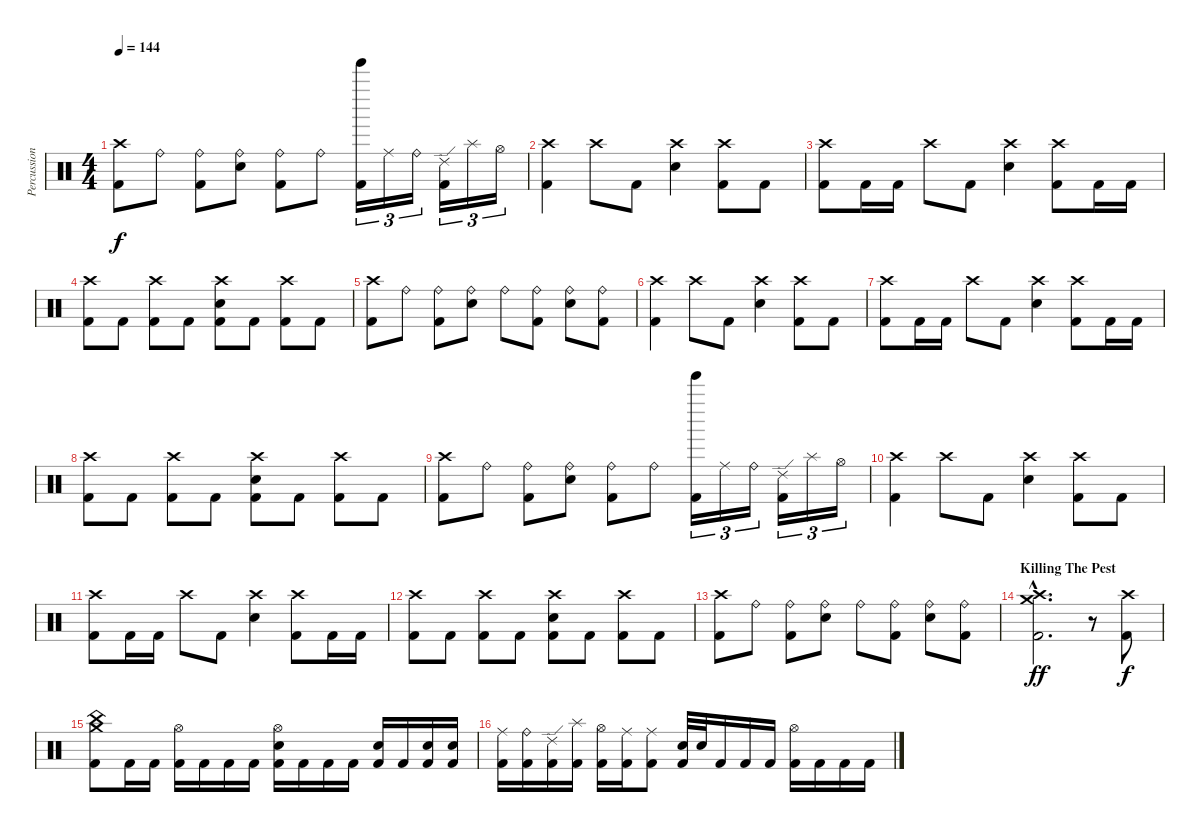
\track ("Percussion" "Percussion") {instrument percussion}
\staff {score}
\articulation defaults
\ts (4 4)
\tempo 144
\clef neutral
\ks c
("Crash high (hit)" "Kick (hit) 2").8{dy f} "Ride (bell)".8 ("Ride (bell)" "Kick (hit) 2").8 ("Ride (bell)" "Electric Snare (hit)").8 ("Ride (bell)" "Kick (hit) 2").8 "Ride (bell)".8 ("Tinkle Bell (hit)" "Kick (hit) 2").16{tu (3 2)} "Ride (middle)".16{tu (3 2)} "Ride (bell)".16{tu (3 2)} ("Ride (edge) 2" "Kick (hit) 2").16{tu (3 2)} "Splash (hit)".16{tu (3 2)} "Hi-Hat (open)".16{tu (3 2)} |
("Crash high (hit)" "Kick (hit) 2").4 "Crash high (hit)".8 "Kick (hit) 2".8 ("Crash high (hit)" "Electric Snare (hit)").4 ("Crash high (hit)" "Kick (hit) 2").8 "Kick (hit) 2".8 |
("Crash high (hit)" "Kick (hit) 2").8 "Kick (hit) 2".16 "Kick (hit) 2".16 "Crash high (hit)".8 "Kick (hit) 2".8 ("Crash high (hit)" "Electric Snare (hit)").4 ("Crash high (hit)" "Kick (hit) 2").8 "Kick (hit) 2".16 "Kick (hit) 2".16 |
("Crash high (hit)" "Kick (hit) 2").8 "Kick (hit) 2".8 ("Crash high (hit)" "Kick (hit) 2").8 "Kick (hit) 2".8 ("Crash high (hit)" "Electric Snare (hit)" "Kick (hit) 2").8 "Kick (hit) 2".8 ("Crash high (hit)" "Kick (hit) 2").8 "Kick (hit) 2".8 |
("Crash high (hit)" "Kick (hit) 2").8 "Ride (bell)".8 ("Ride (bell)" "Kick (hit) 2").8 ("Ride (bell)" "Electric Snare (hit)").8 "Ride (bell)".8 ("Ride (bell)" "Kick (hit) 2").8 ("Ride (bell)" "Electric Snare (hit)").8 ("Ride (bell)" "Kick (hit) 2").8 |
("Crash high (hit)" "Kick (hit) 2").4 "Crash high (hit)".8 "Kick (hit) 2".8 ("Crash high (hit)" "Electric Snare (hit)").4 ("Crash high (hit)" "Kick (hit) 2").8 "Kick (hit) 2".8 |
("Crash high (hit)" "Kick (hit) 2").8 "Kick (hit) 2".16 "Kick (hit) 2".16 "Crash high (hit)".8 "Kick (hit) 2".8 ("Crash high (hit)" "Electric Snare (hit)").4 ("Crash high (hit)" "Kick (hit) 2").8 "Kick (hit) 2".16 "Kick (hit) 2".16 |
("Crash high (hit)" "Kick (hit) 2").8 "Kick (hit) 2".8 ("Crash high (hit)" "Kick (hit) 2").8 "Kick (hit) 2".8 ("Crash high (hit)" "Electric Snare (hit)" "Kick (hit) 2").8 "Kick (hit) 2".8 ("Crash high (hit)" "Kick (hit) 2").8 "Kick (hit) 2".8 |
("Crash high (hit)" "Kick (hit) 2").8 "Ride (bell)".8 ("Ride (bell)" "Kick (hit) 2").8 ("Ride (bell)" "Electric Snare (hit)").8 ("Ride (bell)" "Kick (hit) 2").8 "Ride (bell)".8 ("Tinkle Bell (hit)" "Kick (hit) 2").16{tu (3 2)} "Ride (middle)".16{tu (3 2)} "Ride (bell)".16{tu (3 2)} ("Ride (edge) 2" "Kick (hit) 2").16{tu (3 2)} "Splash (hit)".16{tu (3 2)} "Hi-Hat (open)".16{tu (3 2)} |
("Crash high (hit)" "Kick (hit) 2").4 "Crash high (hit)".8 "Kick (hit) 2".8 ("Crash high (hit)" "Electric Snare (hit)").4 ("Crash high (hit)" "Kick (hit) 2").8 "Kick (hit) 2".8 |
("Crash high (hit)" "Kick (hit) 2").8 "Kick (hit) 2".16 "Kick (hit) 2".16 "Crash high (hit)".8 "Kick (hit) 2".8 ("Crash high (hit)" "Electric Snare (hit)").4 ("Crash high (hit)" "Kick (hit) 2").8 "Kick (hit) 2".16 "Kick (hit) 2".16 |
("Crash high (hit)" "Kick (hit) 2").8 "Kick (hit) 2".8 ("Crash high (hit)" "Kick (hit) 2").8 "Kick (hit) 2".8 ("Crash high (hit)" "Electric Snare (hit)" "Kick (hit) 2").8 "Kick (hit) 2".8 ("Crash high (hit)" "Kick (hit) 2").8 "Kick (hit) 2".8 |
("Crash high (hit)" "Kick (hit) 2").8 "Ride (bell)".8 ("Ride (bell)" "Kick (hit) 2").8 ("Ride (bell)" "Electric Snare (hit)").8 "Ride (bell)".8 ("Ride (bell)" "Kick (hit) 2").8 ("Ride (bell)" "Electric Snare (hit)").8 ("Ride (bell)" "Kick (hit) 2").8 |
\section ("" "Killing The Pest")
("Crash high (hit)"{hac} "Crash medium (hit)"{hac} "Kick (hit) 2"{hac}).2{d dy ff} r.8 ("Crash high (hit)" "Kick (hit) 2").8{dy f} |
("Crash medium (hit)" "China (hit)" "Kick (hit) 2").8 "Kick (hit) 2".16 "Kick (hit) 2".16 ("Hi-Hat (open)" "Kick (hit) 2").16 "Kick (hit) 2".16 "Kick (hit) 2".16 "Kick (hit) 2".16 ("Hi-Hat (open)" "Electric Snare (hit)" "Kick (hit) 2").16 "Kick (hit) 2".16 "Kick (hit) 2".16 "Kick (hit) 2".16 ("Electric Snare (hit)" "Kick (hit) 2").16 "Kick (hit) 2".16 ("Electric Snare (hit)" "Kick (hit) 2").16 ("Electric Snare (hit)" "Kick (hit) 2").16 |
("Ride (middle)" "Kick (hit) 2").16 ("Ride (bell)" "Kick (hit) 2").16 ("Ride (edge) 2" "Kick (hit) 2").16 ("Splash (hit)" "Kick (hit) 2").16 ("Hi-Hat (open)" "Kick (hit) 2").16 ("Ride (middle)" "Kick (hit) 2").16 ("Ride (middle)" "Kick (hit) 2").8 ("Electric Snare (hit)" "Kick (hit) 2").32 "Electric Snare (hit)".32 "Kick (hit) 2".16 "Kick (hit) 2".16 "Kick (hit) 2".16 ("Hi-Hat (open)" "Kick (hit) 2").16 "Kick (hit) 2".16 "Kick (hit) 2".16 "Kick (hit) 2".16
